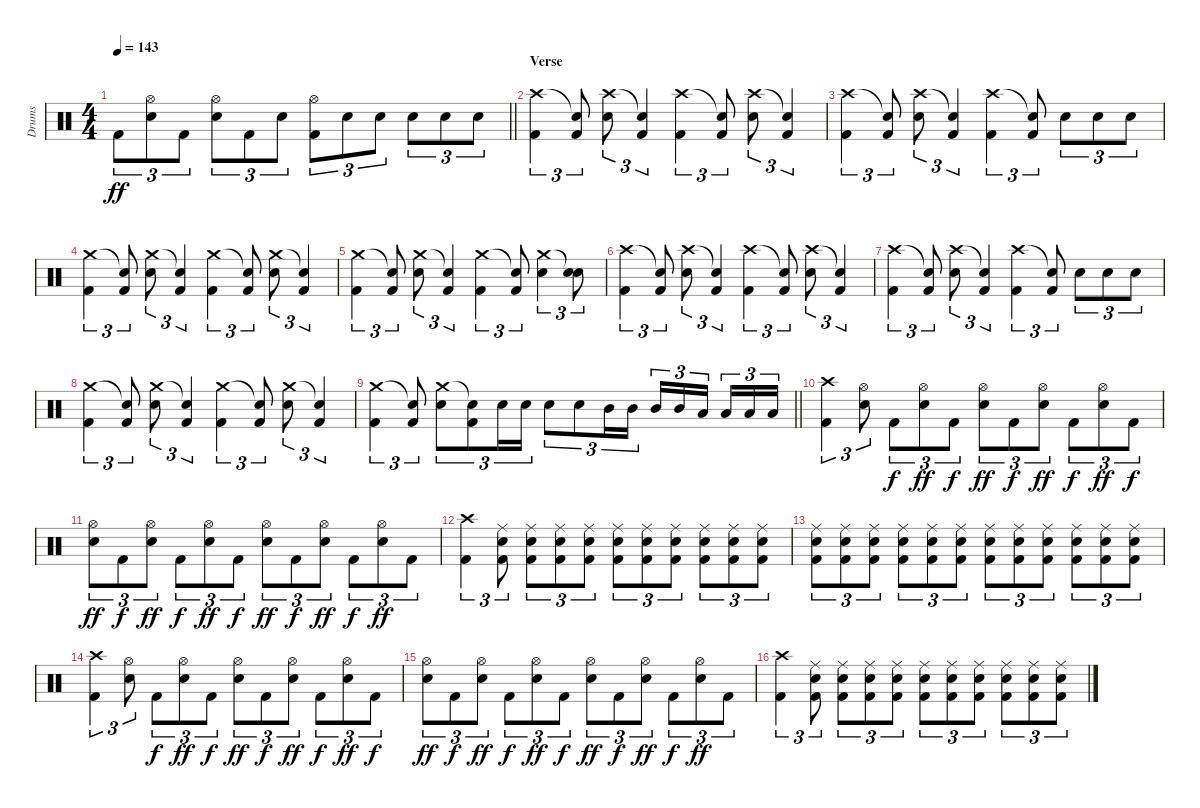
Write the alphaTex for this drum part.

\track ("Drums" "Drums") {instrument percussion}
\staff {score}
\articulation defaults
\ts (4 4)
\tempo 143
\clef neutral
\barLineRight lightlight
\ks c "Kick (hit) 2".8{tu (3 2) dy ff}
("Hi-Hat (open)" "Snare (hit) 2").8{tu (3 2)} "Kick (hit) 2".8{tu (3 2)} ("Hi-Hat (open)" "Snare (hit) 2").8{tu (3 2)} "Kick (hit) 2".8{tu (3 2)} "Snare (hit) 2".8{tu (3 2)} ("Hi-Hat (open)" "Kick (hit) 2").8{tu (3 2)} "Snare (hit) 2".8{tu (3 2)} "Snare (hit) 2".8{tu (3 2)} "Snare (hit) 2".8{tu (3 2)} "Snare (hit) 2".8{tu (3 2)} "Snare (hit) 2".8{tu (3 2)} |
\section ("" "Verse")
("Crash high (hit)" "Kick (hit) 2").4{tu (3 2)} ("Snare (hit)"{t} "Kick (hit) 2").8{tu (3 2)} ("Crash high (hit)" "Snare (hit) 2").8{tu (3 2)} ("Snare (hit)"{t} "Kick (hit) 2").4{tu (3 2)} ("Crash high (hit)" "Kick (hit) 2").4{tu (3 2)} ("Snare (hit)"{t} "Kick (hit) 2").8{tu (3 2)} ("Crash high (hit)" "Snare (hit) 2").8{tu (3 2)} ("Snare (hit)"{t} "Kick (hit) 2").4{tu (3 2)} |
("Crash high (hit)" "Kick (hit) 2").4{tu (3 2)} ("Snare (hit)"{t} "Kick (hit) 2").8{tu (3 2)} ("Crash high (hit)" "Snare (hit) 2").8{tu (3 2)} ("Snare (hit)"{t} "Kick (hit) 2").4{tu (3 2)} ("Crash high (hit)" "Kick (hit) 2").4{tu (3 2)} ("Snare (hit)"{t} "Kick (hit) 2").8{tu (3 2)} "Snare (hit) 2".8{tu (3 2)} "Snare (hit) 2".8{tu (3 2)} "Snare (hit) 2".8{tu (3 2)} |
("Crash medium (hit)" "Kick (hit) 2").4{tu (3 2)} ("Snare (hit)"{t} "Kick (hit) 2").8{tu (3 2)} ("Crash medium (hit)" "Snare (hit) 2").8{tu (3 2)} ("Snare (hit)"{t} "Kick (hit) 2").4{tu (3 2)} ("Crash medium (hit)" "Kick (hit) 2").4{tu (3 2)} ("Snare (hit)"{t} "Kick (hit) 2").8{tu (3 2)} ("Crash medium (hit)" "Snare (hit) 2").8{tu (3 2)} ("Snare (hit)"{t} "Kick (hit) 2").4{tu (3 2)} |
("Crash medium (hit)" "Kick (hit) 2").4{tu (3 2)} ("Snare (hit)"{t} "Kick (hit) 2").8{tu (3 2)} ("Crash medium (hit)" "Snare (hit) 2").8{tu (3 2)} ("Snare (hit)"{t} "Kick (hit) 2").4{tu (3 2)} ("Crash medium (hit)" "Kick (hit) 2").4{tu (3 2)} ("Snare (hit)"{t} "Kick (hit) 2").8{tu (3 2)} ("Crash medium (hit)" "Snare (hit) 2").4{tu (3 2)} ("Snare (hit)"{t} "Snare (hit) 2").8{tu (3 2)} |
("Crash high (hit)" "Kick (hit) 2").4{tu (3 2)} ("Snare (hit)"{t} "Kick (hit) 2").8{tu (3 2)} ("Crash high (hit)" "Snare (hit) 2").8{tu (3 2)} ("Snare (hit)"{t} "Kick (hit) 2").4{tu (3 2)} ("Crash high (hit)" "Kick (hit) 2").4{tu (3 2)} ("Snare (hit)"{t} "Kick (hit) 2").8{tu (3 2)} ("Crash high (hit)" "Snare (hit) 2").8{tu (3 2)} ("Snare (hit)"{t} "Kick (hit) 2").4{tu (3 2)} |
("Crash high (hit)" "Kick (hit) 2").4{tu (3 2)} ("Snare (hit)"{t} "Kick (hit) 2").8{tu (3 2)} ("Crash high (hit)" "Snare (hit) 2").8{tu (3 2)} ("Snare (hit)"{t} "Kick (hit) 2").4{tu (3 2)} ("Crash high (hit)" "Kick (hit) 2").4{tu (3 2)} ("Snare (hit)"{t} "Kick (hit) 2").8{tu (3 2)} "Snare (hit) 2".8{tu (3 2)} "Snare (hit) 2".8{tu (3 2)} "Snare (hit) 2".8{tu (3 2)} |
("Crash medium (hit)" "Kick (hit) 2").4{tu (3 2)} ("Snare (hit)"{t} "Kick (hit) 2").8{tu (3 2)} ("Crash medium (hit)" "Snare (hit) 2").8{tu (3 2)} ("Snare (hit)"{t} "Kick (hit) 2").4{tu (3 2)} ("Crash medium (hit)" "Kick (hit) 2").4{tu (3 2)} ("Snare (hit)"{t} "Kick (hit) 2").8{tu (3 2)} ("Crash medium (hit)" "Snare (hit) 2").8{tu (3 2)} ("Snare (hit)"{t} "Kick (hit) 2").4{tu (3 2)} |
\barLineRight lightlight
("Crash medium (hit)" "Kick (hit) 2").4{tu (3 2)} ("Snare (hit)"{t} "Kick (hit) 2").8{tu (3 2)} ("Crash medium (hit)" "Snare (hit) 2").8{tu (3 2)} ("Snare (hit)"{t} "Kick (hit) 2").8{tu (3 2)} "Snare (hit) 2".16{tu (3 2)} "Snare (hit) 2".16{tu (3 2)} "Snare (hit) 2".8{tu (3 2)} "Snare (hit) 2".8{tu (3 2)} "Mid Tom (hit)".16{tu (3 2)} "Mid Tom (hit)".16{tu (3 2)} "Mid Tom (hit)".16{tu (3 2)} "Mid Tom (hit)".16{tu (3 2)} "Low Tom (hit)".16{tu (3 2) beam splitsecondary} "Low Tom (hit)".16{tu (3 2)} "Low Tom (hit)".16{tu (3 2)} "Low Tom (hit)".16{tu (3 2)} |
("Crash high (hit)" "Kick (hit) 2").4{tu (3 2)} ("Hi-Hat (open)" "Snare (hit) 2").8{tu (3 2)} "Kick (hit) 2".8{tu (3 2) dy f} ("Hi-Hat (open)" "Snare (hit) 2").8{tu (3 2) dy ff} "Kick (hit) 2".8{tu (3 2) dy f} ("Hi-Hat (open)" "Snare (hit) 2").8{tu (3 2) dy ff} "Kick (hit) 2".8{tu (3 2) dy f} ("Hi-Hat (open)" "Snare (hit) 2").8{tu (3 2) dy ff} "Kick (hit) 2".8{tu (3 2) dy f} ("Hi-Hat (open)" "Snare (hit) 2").8{tu (3 2) dy ff} "Kick (hit) 2".8{tu (3 2) dy f} |
("Hi-Hat (open)" "Snare (hit) 2").8{tu (3 2) dy ff} "Kick (hit) 2".8{tu (3 2) dy f} ("Hi-Hat (open)" "Snare (hit) 2").8{tu (3 2) dy ff} "Kick (hit) 2".8{tu (3 2) dy f} ("Hi-Hat (open)" "Snare (hit) 2").8{tu (3 2) dy ff} "Kick (hit) 2".8{tu (3 2) dy f} ("Hi-Hat (open)" "Snare (hit) 2").8{tu (3 2) dy ff} "Kick (hit) 2".8{tu (3 2) dy f} ("Hi-Hat (open)" "Snare (hit) 2").8{tu (3 2) dy ff} "Kick (hit) 2".8{tu (3 2) dy f} ("Hi-Hat (open)" "Snare (hit) 2").8{tu (3 2) dy ff} "Kick (hit) 2".8{tu (3 2)} |
("Crash high (hit)" "Kick (hit) 2").4{tu (3 2)} ("Ride (middle)" "Snare (hit) 2" "Kick (hit) 2").8{tu (3 2)} ("Ride (middle)" "Snare (hit) 2" "Kick (hit) 2").8{tu (3 2)} ("Ride (middle)" "Snare (hit) 2" "Kick (hit) 2").8{tu (3 2)} ("Ride (middle)" "Snare (hit) 2" "Kick (hit) 2").8{tu (3 2)} ("Ride (middle)" "Snare (hit) 2" "Kick (hit) 2").8{tu (3 2)} ("Ride (middle)" "Snare (hit) 2" "Kick (hit) 2").8{tu (3 2)} ("Ride (middle)" "Snare (hit) 2" "Kick (hit) 2").8{tu (3 2)} ("Ride (middle)" "Snare (hit) 2" "Kick (hit) 2").8{tu (3 2)} ("Ride (middle)" "Snare (hit) 2" "Kick (hit) 2").8{tu (3 2)} ("Ride (middle)" "Snare (hit) 2" "Kick (hit) 2").8{tu (3 2)} |
("Ride (middle)" "Snare (hit) 2" "Kick (hit) 2").8{tu (3 2)} ("Ride (middle)" "Snare (hit) 2" "Kick (hit) 2").8{tu (3 2)} ("Ride (middle)" "Snare (hit) 2" "Kick (hit) 2").8{tu (3 2)} ("Ride (middle)" "Snare (hit) 2" "Kick (hit) 2").8{tu (3 2)} ("Ride (middle)" "Snare (hit) 2" "Kick (hit) 2").8{tu (3 2)} ("Ride (middle)" "Snare (hit) 2" "Kick (hit) 2").8{tu (3 2)} ("Ride (middle)" "Snare (hit) 2" "Kick (hit) 2").8{tu (3 2)} ("Ride (middle)" "Snare (hit) 2" "Kick (hit) 2").8{tu (3 2)} ("Ride (middle)" "Snare (hit) 2" "Kick (hit) 2").8{tu (3 2)} ("Ride (middle)" "Snare (hit) 2" "Kick (hit) 2").8{tu (3 2)} ("Ride (middle)" "Snare (hit) 2" "Kick (hit) 2").8{tu (3 2)} ("Ride (middle)" "Snare (hit) 2" "Kick (hit) 2").8{tu (3 2)} |
("Crash high (hit)" "Kick (hit) 2").4{tu (3 2)} ("Hi-Hat (open)" "Snare (hit) 2").8{tu (3 2)} "Kick (hit) 2".8{tu (3 2) dy f} ("Hi-Hat (open)" "Snare (hit) 2").8{tu (3 2) dy ff} "Kick (hit) 2".8{tu (3 2) dy f} ("Hi-Hat (open)" "Snare (hit) 2").8{tu (3 2) dy ff} "Kick (hit) 2".8{tu (3 2) dy f} ("Hi-Hat (open)" "Snare (hit) 2").8{tu (3 2) dy ff} "Kick (hit) 2".8{tu (3 2) dy f} ("Hi-Hat (open)" "Snare (hit) 2").8{tu (3 2) dy ff} "Kick (hit) 2".8{tu (3 2) dy f} |
("Hi-Hat (open)" "Snare (hit) 2").8{tu (3 2) dy ff} "Kick (hit) 2".8{tu (3 2) dy f} ("Hi-Hat (open)" "Snare (hit) 2").8{tu (3 2) dy ff} "Kick (hit) 2".8{tu (3 2) dy f} ("Hi-Hat (open)" "Snare (hit) 2").8{tu (3 2) dy ff} "Kick (hit) 2".8{tu (3 2) dy f} ("Hi-Hat (open)" "Snare (hit) 2").8{tu (3 2) dy ff} "Kick (hit) 2".8{tu (3 2) dy f} ("Hi-Hat (open)" "Snare (hit) 2").8{tu (3 2) dy ff} "Kick (hit) 2".8{tu (3 2) dy f} ("Hi-Hat (open)" "Snare (hit) 2").8{tu (3 2) dy ff} "Kick (hit) 2".8{tu (3 2)} |
("Crash high (hit)" "Kick (hit) 2").4{tu (3 2)} ("Ride (middle)" "Snare (hit) 2" "Kick (hit) 2").8{tu (3 2)} ("Ride (middle)" "Snare (hit) 2" "Kick (hit) 2").8{tu (3 2)} ("Ride (middle)" "Snare (hit) 2" "Kick (hit) 2").8{tu (3 2)} ("Ride (middle)" "Snare (hit) 2" "Kick (hit) 2").8{tu (3 2)} ("Ride (middle)" "Snare (hit) 2" "Kick (hit) 2").8{tu (3 2)} ("Ride (middle)" "Snare (hit) 2" "Kick (hit) 2").8{tu (3 2)} ("Ride (middle)" "Snare (hit) 2" "Kick (hit) 2").8{tu (3 2)} ("Ride (middle)" "Snare (hit) 2" "Kick (hit) 2").8{tu (3 2)} ("Ride (middle)" "Snare (hit) 2" "Kick (hit) 2").8{tu (3 2)} ("Ride (middle)" "Snare (hit) 2" "Kick (hit) 2").8{tu (3 2)}
